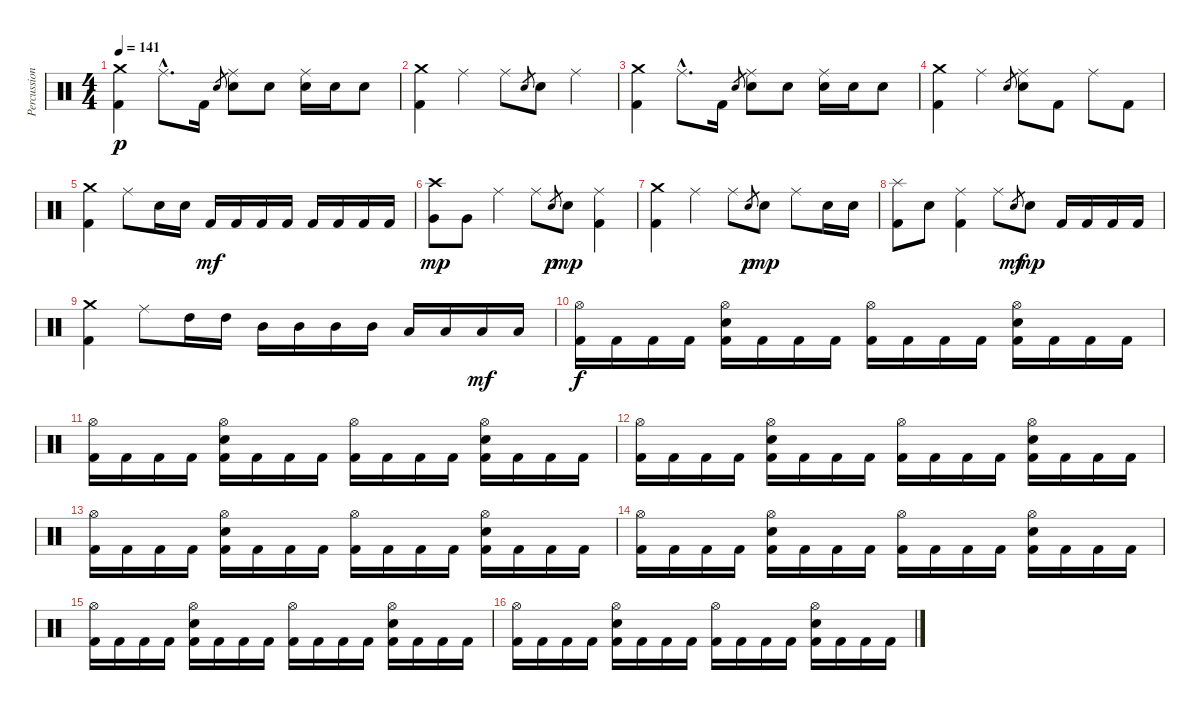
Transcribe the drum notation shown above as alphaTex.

\track ("Percussion" "Percussion") {instrument percussion}
\staff {score}
\articulation defaults
\ts (4 4)
\tempo 141
\clef neutral
\ks c
("Kick (hit) 2" "Crash medium (hit)").4{dy p} "Ride (middle)"{hac}.8{d} "Kick (hit) 2".16 "Electric Snare (hit)".8{gr} ("Electric Snare (hit)" "Ride (middle)").8 "Electric Snare (hit)".8 ("Electric Snare (hit)" "Ride (middle)").16 "Electric Snare (hit)".16 "Electric Snare (hit)".8 |
("Kick (hit) 2" "Crash medium (hit)").4 "Ride (middle)".4 "Ride (middle)".8 "Electric Snare (hit)".8{gr} "Electric Snare (hit)".8 "Ride (middle)".4 |
("Kick (hit) 2" "Crash medium (hit)").4 "Ride (middle)"{hac}.8{d} "Kick (hit) 2".16 "Electric Snare (hit)".8{gr} ("Electric Snare (hit)" "Ride (middle)").8 "Electric Snare (hit)".8 ("Electric Snare (hit)" "Ride (middle)").16 "Electric Snare (hit)".16 "Electric Snare (hit)".8 |
("Kick (hit) 2" "Crash medium (hit)").4 "Ride (middle)".4 "Electric Snare (hit)".8{gr} ("Electric Snare (hit)" "Ride (middle)").8 "Kick (hit) 2".8 "Ride (middle)".8 "Kick (hit) 2".8 |
("Kick (hit) 2" "Crash medium (hit)").4 "Ride (middle)".8 "Electric Snare (hit)".16 "Electric Snare (hit)".16 "Kick (hit) 2".16{dy mf} "Kick (hit) 2".16 "Kick (hit) 2".16 "Kick (hit) 2".16 "Kick (hit) 2".16 "Kick (hit) 2".16 "Kick (hit) 2".16 "Kick (hit) 2".16 |
("Very Low Tom (hit)" "Crash high (hit)").8{dy mp} "Very Low Tom (hit)".8 "Ride (middle)".4 "Ride (middle)".8 "Electric Snare (hit)".8{gr dy p} "Electric Snare (hit)".8{dy mp} ("Kick (hit) 2" "Ride (middle)").4 |
("Kick (hit) 2" "Crash medium (hit)").4 "Ride (middle)".4 "Ride (middle)".8 "Electric Snare (hit)".8{gr dy p} "Electric Snare (hit)".8{dy mp} "Ride (middle)".8 "Electric Snare (hit)".16 "Electric Snare (hit)".16 |
("Kick (hit) 2" "Splash (hit)").8 "Electric Snare (hit)".8 ("Kick (hit) 2" "Ride (middle)").4 "Ride (middle)".8 "Electric Snare (hit)".8{gr dy mf} "Electric Snare (hit)".8{dy mp} "Kick (hit) 2".16 "Kick (hit) 2".16 "Kick (hit) 2".16 "Kick (hit) 2".16 |
("Kick (hit) 2" "Crash medium (hit)").4 "Ride (middle)".8 "High Tom (hit)".16 "High Tom (hit)".16 "Mid Tom (hit)".16 "Mid Tom (hit)".16 "Mid Tom (hit)".16 "Mid Tom (hit)".16 "Low Tom (hit)".16 "Low Tom (hit)".16 "Low Tom (hit)".16{dy mf} "Low Tom (hit)".16 |
("Kick (hit) 2" "Hi-Hat (open)").16{dy f} "Kick (hit) 2".16 "Kick (hit) 2".16 "Kick (hit) 2".16 ("Kick (hit) 2" "Electric Snare (hit)" "Hi-Hat (open)").16 "Kick (hit) 2".16 "Kick (hit) 2".16 "Kick (hit) 2".16 ("Kick (hit) 2" "Hi-Hat (open)").16 "Kick (hit) 2".16 "Kick (hit) 2".16 "Kick (hit) 2".16 ("Kick (hit) 2" "Electric Snare (hit)" "Hi-Hat (open)").16 "Kick (hit) 2".16 "Kick (hit) 2".16 "Kick (hit) 2".16 |
("Kick (hit) 2" "Hi-Hat (open)").16 "Kick (hit) 2".16 "Kick (hit) 2".16 "Kick (hit) 2".16 ("Kick (hit) 2" "Electric Snare (hit)" "Hi-Hat (open)").16 "Kick (hit) 2".16 "Kick (hit) 2".16 "Kick (hit) 2".16 ("Kick (hit) 2" "Hi-Hat (open)").16 "Kick (hit) 2".16 "Kick (hit) 2".16 "Kick (hit) 2".16 ("Kick (hit) 2" "Electric Snare (hit)" "Hi-Hat (open)").16 "Kick (hit) 2".16 "Kick (hit) 2".16 "Kick (hit) 2".16 |
("Kick (hit) 2" "Hi-Hat (open)").16 "Kick (hit) 2".16 "Kick (hit) 2".16 "Kick (hit) 2".16 ("Kick (hit) 2" "Electric Snare (hit)" "Hi-Hat (open)").16 "Kick (hit) 2".16 "Kick (hit) 2".16 "Kick (hit) 2".16 ("Kick (hit) 2" "Hi-Hat (open)").16 "Kick (hit) 2".16 "Kick (hit) 2".16 "Kick (hit) 2".16 ("Kick (hit) 2" "Electric Snare (hit)" "Hi-Hat (open)").16 "Kick (hit) 2".16 "Kick (hit) 2".16 "Kick (hit) 2".16 |
("Kick (hit) 2" "Hi-Hat (open)").16 "Kick (hit) 2".16 "Kick (hit) 2".16 "Kick (hit) 2".16 ("Kick (hit) 2" "Electric Snare (hit)" "Hi-Hat (open)").16 "Kick (hit) 2".16 "Kick (hit) 2".16 "Kick (hit) 2".16 ("Kick (hit) 2" "Hi-Hat (open)").16 "Kick (hit) 2".16 "Kick (hit) 2".16 "Kick (hit) 2".16 ("Kick (hit) 2" "Electric Snare (hit)" "Hi-Hat (open)").16 "Kick (hit) 2".16 "Kick (hit) 2".16 "Kick (hit) 2".16 |
("Kick (hit) 2" "Hi-Hat (open)").16 "Kick (hit) 2".16 "Kick (hit) 2".16 "Kick (hit) 2".16 ("Kick (hit) 2" "Electric Snare (hit)" "Hi-Hat (open)").16 "Kick (hit) 2".16 "Kick (hit) 2".16 "Kick (hit) 2".16 ("Kick (hit) 2" "Hi-Hat (open)").16 "Kick (hit) 2".16 "Kick (hit) 2".16 "Kick (hit) 2".16 ("Kick (hit) 2" "Electric Snare (hit)" "Hi-Hat (open)").16 "Kick (hit) 2".16 "Kick (hit) 2".16 "Kick (hit) 2".16 |
("Kick (hit) 2" "Hi-Hat (open)").16 "Kick (hit) 2".16 "Kick (hit) 2".16 "Kick (hit) 2".16 ("Kick (hit) 2" "Electric Snare (hit)" "Hi-Hat (open)").16 "Kick (hit) 2".16 "Kick (hit) 2".16 "Kick (hit) 2".16 ("Kick (hit) 2" "Hi-Hat (open)").16 "Kick (hit) 2".16 "Kick (hit) 2".16 "Kick (hit) 2".16 ("Kick (hit) 2" "Electric Snare (hit)" "Hi-Hat (open)").16 "Kick (hit) 2".16 "Kick (hit) 2".16 "Kick (hit) 2".16 |
("Kick (hit) 2" "Hi-Hat (open)").16 "Kick (hit) 2".16 "Kick (hit) 2".16 "Kick (hit) 2".16 ("Kick (hit) 2" "Electric Snare (hit)" "Hi-Hat (open)").16 "Kick (hit) 2".16 "Kick (hit) 2".16 "Kick (hit) 2".16 ("Kick (hit) 2" "Hi-Hat (open)").16 "Kick (hit) 2".16 "Kick (hit) 2".16 "Kick (hit) 2".16 ("Kick (hit) 2" "Electric Snare (hit)" "Hi-Hat (open)").16 "Kick (hit) 2".16 "Kick (hit) 2".16 "Kick (hit) 2".16
